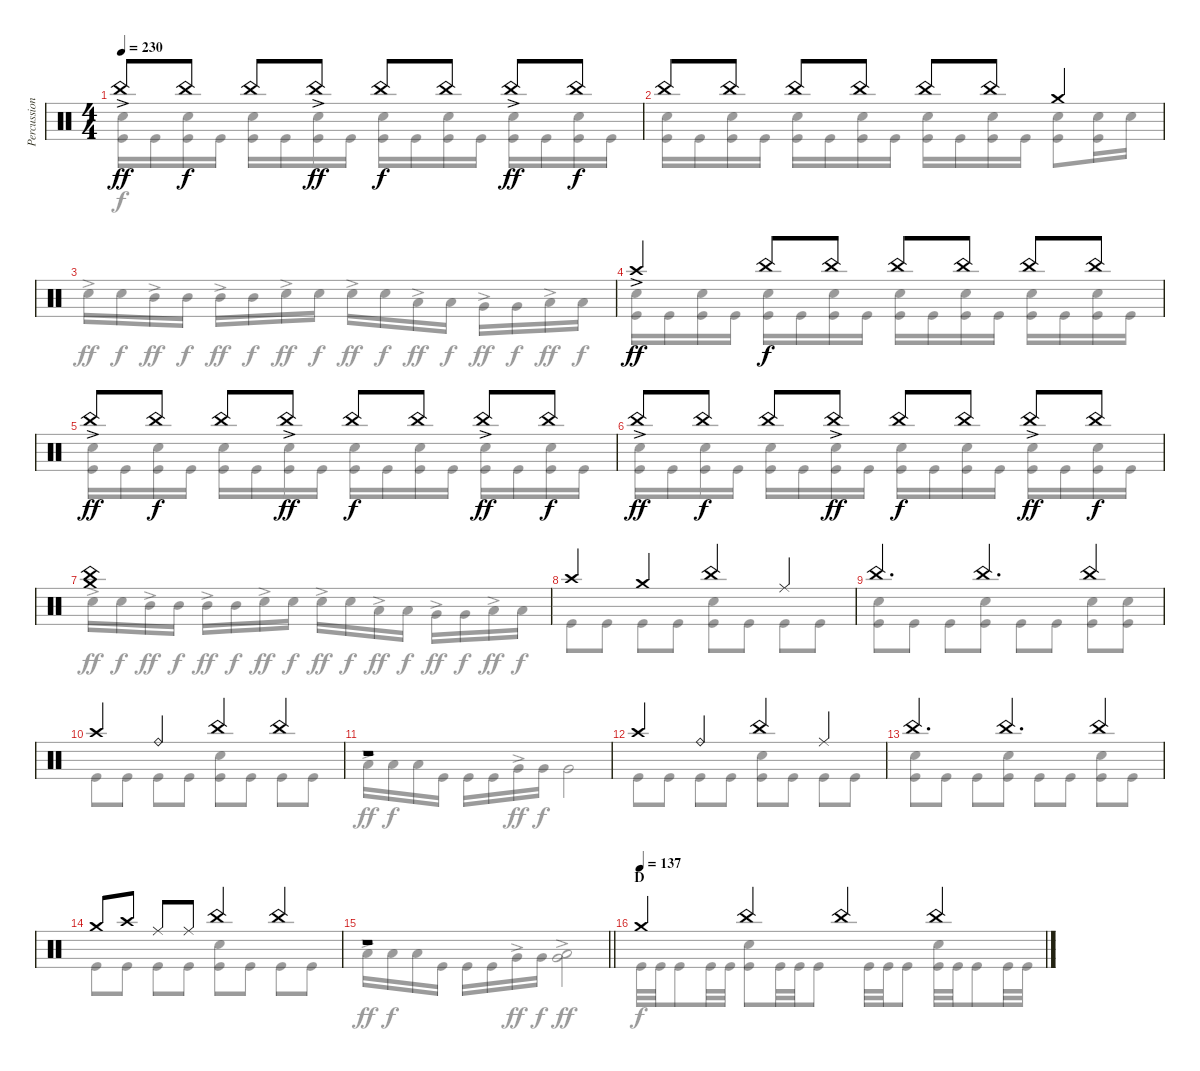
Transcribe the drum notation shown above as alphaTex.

\track ("Percussions" "Percussion") {instrument percussion}
\staff {score}
\articulation defaults
\voice
\ts (4 4)
\tempo 230
\clef neutral
\ks c "China (hit)"{ac}.8{dy ff} "China (hit)".8{dy f} "China (hit)".8 "China (hit)"{ac}.8{dy ff} "China (hit)".8{dy f} "China (hit)".8 "China (hit)"{ac}.8{dy ff} "China (hit)".8{dy f}
|
"China (hit)".8 "China (hit)".8 "China (hit)".8 "China (hit)".8 "China (hit)".8 "China (hit)".8 "Crash medium (hit)".4 |
|
"Crash high (hit)"{ac}.4{dy ff} "China (hit)".8{dy f} "China (hit)".8 "China (hit)".8 "China (hit)".8 "China (hit)".8 "China (hit)".8 |
"China (hit)"{ac}.8{dy ff} "China (hit)".8{dy f} "China (hit)".8 "China (hit)"{ac}.8{dy ff} "China (hit)".8{dy f} "China (hit)".8 "China (hit)"{ac}.8{dy ff} "China (hit)".8{dy f} |
"China (hit)"{ac}.8{dy ff} "China (hit)".8{dy f} "China (hit)".8 "China (hit)"{ac}.8{dy ff} "China (hit)".8{dy f} "China (hit)".8 "China (hit)"{ac}.8{dy ff} "China (hit)".8{dy f} |
("China (hit)" "Crash medium (hit)").1 |
"Crash high (hit)".4 "Crash medium (hit)".4 "China (hit)".4 "Ride (middle)".4 |
"China (hit)".4{d} "China (hit)".4{d} "China (hit)".4 |
"Crash high (hit)".4 "Ride (bell)".4 "China (hit)".4 "China (hit)".4 |
r.1 |
"Crash high (hit)".4 "Ride (bell)".4 "China (hit)".4 "Ride (middle)".4 |
"China (hit)".4{d} "China (hit)".4{d} "China (hit)".4 |
"Crash medium (hit)".8 "Crash high (hit)".8 "Ride (middle)".8 "Ride (middle)".8 "China (hit)".4 "China (hit)".4 |
\barLineRight lightlight
r.1 |
\section ("" "D")
\tempo (137)
"Crash medium (hit)".4 "China (hit)".4 "China (hit)".4 "China (hit)".4
\voice
\clef neutral
\ottava regular
\simile none
\ks c
("Snare (hit) 2" "Kick (hit)").16{dy f} "Kick (hit)".16 ("Snare (hit) 2" "Kick (hit)").16 "Kick (hit)".16 ("Snare (hit) 2" "Kick (hit)").16 "Kick (hit)".16 ("Snare (hit) 2" "Kick (hit)").16 "Kick (hit)".16 ("Snare (hit) 2" "Kick (hit)").16 "Kick (hit)".16 ("Snare (hit) 2" "Kick (hit)").16 "Kick (hit)".16 ("Snare (hit) 2" "Kick (hit)").16 "Kick (hit)".16 ("Snare (hit) 2" "Kick (hit)").16 "Kick (hit)".16 |
("Snare (hit) 2" "Kick (hit)").16 "Kick (hit)".16 ("Snare (hit) 2" "Kick (hit)").16 "Kick (hit)".16 ("Snare (hit) 2" "Kick (hit)").16 "Kick (hit)".16 ("Snare (hit) 2" "Kick (hit)").16 "Kick (hit)".16 ("Snare (hit) 2" "Kick (hit)").16 "Kick (hit)".16 ("Snare (hit) 2" "Kick (hit)").16 "Kick (hit)".16 ("Snare (hit) 2" "Kick (hit)").8 ("Snare (hit) 2" "Kick (hit)").16 "Snare (hit) 2".16 |
"Snare (hit) 2"{ac}.16{dy ff} "Snare (hit) 2".16{dy f} "Mid Tom (hit)"{ac}.16{dy ff} "Mid Tom (hit)".16{dy f} "Mid Tom (hit)"{ac}.16{dy ff} "Mid Tom (hit)".16{dy f} "Snare (hit) 2"{ac}.16{dy ff} "Snare (hit) 2".16{dy f} "Snare (hit) 2"{ac}.16{dy ff} "Snare (hit) 2".16{dy f} "Low Tom (hit)"{ac}.16{dy ff} "Low Tom (hit)".16{dy f} "Very Low Tom (hit)"{ac}.16{dy ff} "Very Low Tom (hit)".16{dy f} "Low Floor Tom (hit)"{ac}.16{dy ff} "Low Floor Tom (hit)".16{dy f} |
("Snare (hit) 2" "Kick (hit)").16 "Kick (hit)".16 ("Snare (hit) 2" "Kick (hit)").16 "Kick (hit)".16 ("Snare (hit) 2" "Kick (hit)").16 "Kick (hit)".16 ("Snare (hit) 2" "Kick (hit)").16 "Kick (hit)".16 ("Snare (hit) 2" "Kick (hit)").16 "Kick (hit)".16 ("Snare (hit) 2" "Kick (hit)").16 "Kick (hit)".16 ("Snare (hit) 2" "Kick (hit)").16 "Kick (hit)".16 ("Snare (hit) 2" "Kick (hit)").16 "Kick (hit)".16 |
("Snare (hit) 2" "Kick (hit)").16 "Kick (hit)".16 ("Snare (hit) 2" "Kick (hit)").16 "Kick (hit)".16 ("Snare (hit) 2" "Kick (hit)").16 "Kick (hit)".16 ("Snare (hit) 2" "Kick (hit)").16 "Kick (hit)".16 ("Snare (hit) 2" "Kick (hit)").16 "Kick (hit)".16 ("Snare (hit) 2" "Kick (hit)").16 "Kick (hit)".16 ("Snare (hit) 2" "Kick (hit)").16 "Kick (hit)".16 ("Snare (hit) 2" "Kick (hit)").16 "Kick (hit)".16 |
("Snare (hit) 2" "Kick (hit)").16 "Kick (hit)".16 ("Snare (hit) 2" "Kick (hit)").16 "Kick (hit)".16 ("Snare (hit) 2" "Kick (hit)").16 "Kick (hit)".16 ("Snare (hit) 2" "Kick (hit)").16 "Kick (hit)".16 ("Snare (hit) 2" "Kick (hit)").16 "Kick (hit)".16 ("Snare (hit) 2" "Kick (hit)").16 "Kick (hit)".16 ("Snare (hit) 2" "Kick (hit)").16 "Kick (hit)".16 ("Snare (hit) 2" "Kick (hit)").16 "Kick (hit)".16 |
"Snare (hit) 2"{ac}.16{dy ff} "Snare (hit) 2".16{dy f} "Mid Tom (hit)"{ac}.16{dy ff} "Mid Tom (hit)".16{dy f} "Mid Tom (hit)"{ac}.16{dy ff} "Mid Tom (hit)".16{dy f} "Snare (hit) 2"{ac}.16{dy ff} "Snare (hit) 2".16{dy f} "Snare (hit) 2"{ac}.16{dy ff} "Snare (hit) 2".16{dy f} "Low Tom (hit)"{ac}.16{dy ff} "Low Tom (hit)".16{dy f} "Very Low Tom (hit)"{ac}.16{dy ff} "Very Low Tom (hit)".16{dy f} "Low Floor Tom (hit)"{ac}.16{dy ff} "Low Floor Tom (hit)".16{dy f} |
"Kick (hit)".8 "Kick (hit)".8 "Kick (hit)".8 "Kick (hit)".8 ("Snare (hit) 2" "Kick (hit)").8 "Kick (hit)".8 "Kick (hit)".8 "Kick (hit)".8 |
("Snare (hit) 2" "Kick (hit)").8 "Kick (hit)".8 "Kick (hit)".8 ("Snare (hit) 2" "Kick (hit)").8 "Kick (hit)".8 "Kick (hit)".8 ("Snare (hit) 2" "Kick (hit)").8 ("Snare (hit) 2" "Kick (hit)").8 |
"Kick (hit)".8 "Kick (hit)".8 "Kick (hit)".8 "Kick (hit)".8 ("Snare (hit) 2" "Kick (hit)").8 "Kick (hit)".8 "Kick (hit)".8 "Kick (hit)".8 |
"Low Tom (hit)"{ac}.16{dy ff} "Low Tom (hit)".16{dy f} "Low Tom (hit)".16 "Kick (hit)".16 "Kick (hit)".16 "Kick (hit)".16 "Very Low Tom (hit)"{ac}.16{dy ff} "Very Low Tom (hit)".16{dy f} "Very Low Tom (hit)".2 |
"Kick (hit)".8 "Kick (hit)".8 "Kick (hit)".8 "Kick (hit)".8 ("Snare (hit) 2" "Kick (hit)").8 "Kick (hit)".8 "Kick (hit)".8 "Kick (hit)".8 |
("Snare (hit) 2" "Kick (hit)").8 "Kick (hit)".8 "Kick (hit)".8 ("Snare (hit) 2" "Kick (hit)").8 "Kick (hit)".8 "Kick (hit)".8 ("Snare (hit) 2" "Kick (hit)").8 "Kick (hit)".8 |
"Kick (hit)".8 "Kick (hit)".8 "Kick (hit)".8 "Kick (hit)".8 ("Snare (hit) 2" "Kick (hit)").8 "Kick (hit)".8 "Kick (hit)".8 "Kick (hit)".8 |
\barLineRight lightlight "Low Tom (hit)"{ac}.16{dy ff} "Low Tom (hit)".16{dy f} "Low Tom (hit)".16 "Kick (hit)".16 "Kick (hit)".16 "Kick (hit)".16 "Very Low Tom (hit)"{ac}.16{dy ff} "Very Low Tom (hit)".16{dy f}
("Very Low Tom (hit)"{ac} "Low Floor Tom (hit)"{ac}).2{dy ff} |
"Kick (hit)".32{dy f} "Kick (hit)".32 "Kick (hit)".8 "Kick (hit)".32 "Kick (hit)".32 ("Snare (hit) 2" "Kick (hit)").8 "Kick (hit)".32 "Kick (hit)".32 "Kick (hit)".8 "Kick (hit)".32 "Kick (hit)".32 "Kick (hit)".8 ("Snare (hit) 2" "Kick (hit)").32 "Kick (hit)".32 "Kick (hit)".8 "Kick (hit)".32 "Kick (hit)".32
